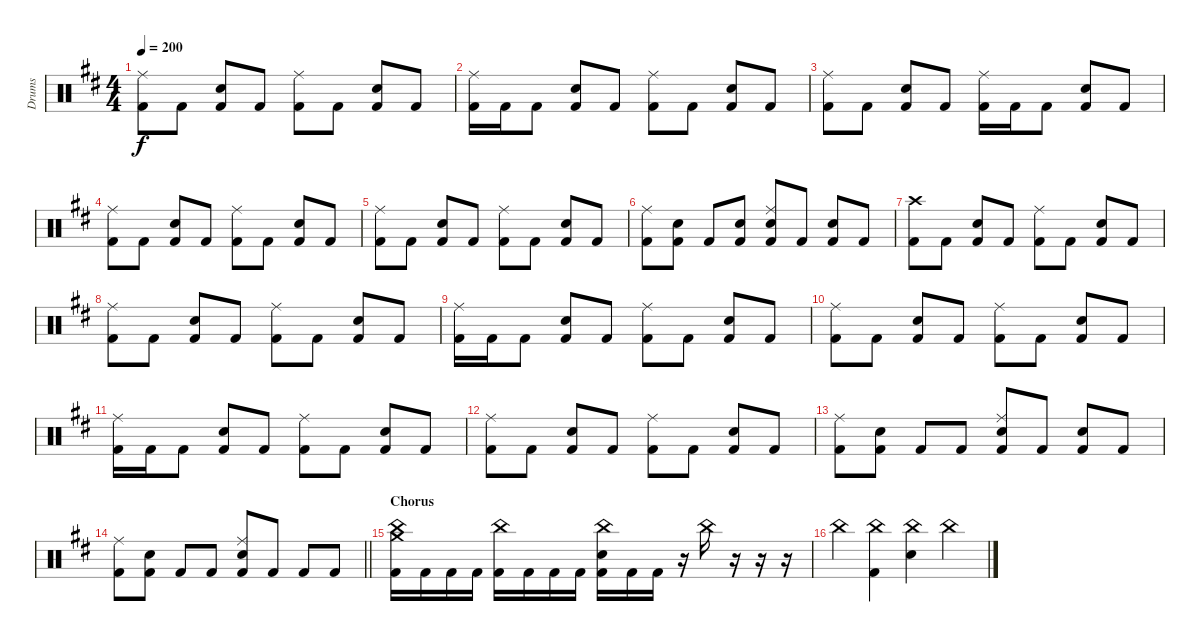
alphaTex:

\track ("Drums" "Drums") {instrument percussion}
\staff {score}
\articulation defaults
\ts (4 4)
\tempo 200
\clef neutral
\ks bminor
("Kick (hit) 2" "Ride (middle)").8{dy f} "Kick (hit) 2".8 ("Kick (hit) 2" "Electric Snare (hit)").8 "Kick (hit) 2".8 ("Kick (hit) 2" "Ride (middle)").8 "Kick (hit) 2".8 ("Kick (hit) 2" "Electric Snare (hit)").8 "Kick (hit) 2".8 |
("Kick (hit) 2" "Ride (middle)").16 "Kick (hit) 2".16 "Kick (hit) 2".8 ("Kick (hit) 2" "Electric Snare (hit)").8 "Kick (hit) 2".8 ("Kick (hit) 2" "Ride (middle)").8 "Kick (hit) 2".8 ("Kick (hit) 2" "Electric Snare (hit)").8 "Kick (hit) 2".8 |
("Kick (hit) 2" "Ride (middle)").8 "Kick (hit) 2".8 ("Kick (hit) 2" "Electric Snare (hit)").8 "Kick (hit) 2".8 ("Kick (hit) 2" "Ride (middle)").16 "Kick (hit) 2".16 "Kick (hit) 2".8 ("Kick (hit) 2" "Electric Snare (hit)").8 "Kick (hit) 2".8 |
("Kick (hit) 2" "Ride (middle)").8 "Kick (hit) 2".8 ("Kick (hit) 2" "Electric Snare (hit)").8 "Kick (hit) 2".8 ("Kick (hit) 2" "Ride (middle)").8 "Kick (hit) 2".8 ("Kick (hit) 2" "Electric Snare (hit)").8 "Kick (hit) 2".8 |
("Kick (hit) 2" "Ride (middle)").8 "Kick (hit) 2".8 ("Kick (hit) 2" "Electric Snare (hit)").8 "Kick (hit) 2".8 ("Kick (hit) 2" "Ride (middle)").8 "Kick (hit) 2".8 ("Kick (hit) 2" "Electric Snare (hit)").8 "Kick (hit) 2".8 |
("Kick (hit) 2" "Ride (middle)").8 ("Kick (hit) 2" "Electric Snare (hit)").8 "Kick (hit) 2".8 ("Kick (hit) 2" "Electric Snare (hit)").8 ("Kick (hit) 2" "Ride (middle)" "Electric Snare (hit)").8 "Kick (hit) 2".8 ("Kick (hit) 2" "Electric Snare (hit)").8 "Kick (hit) 2".8 |
("Kick (hit) 2" "Crash high (hit)").8 "Kick (hit) 2".8 ("Kick (hit) 2" "Electric Snare (hit)").8 "Kick (hit) 2".8 ("Kick (hit) 2" "Ride (middle)").8 "Kick (hit) 2".8 ("Kick (hit) 2" "Electric Snare (hit)").8 "Kick (hit) 2".8 |
("Kick (hit) 2" "Ride (middle)").8 "Kick (hit) 2".8 ("Kick (hit) 2" "Electric Snare (hit)").8 "Kick (hit) 2".8 ("Kick (hit) 2" "Ride (middle)").8 "Kick (hit) 2".8 ("Kick (hit) 2" "Electric Snare (hit)").8 "Kick (hit) 2".8 |
("Kick (hit) 2" "Ride (middle)").16 "Kick (hit) 2".16 "Kick (hit) 2".8 ("Kick (hit) 2" "Electric Snare (hit)").8 "Kick (hit) 2".8 ("Kick (hit) 2" "Ride (middle)").8 "Kick (hit) 2".8 ("Kick (hit) 2" "Electric Snare (hit)").8 "Kick (hit) 2".8 |
("Kick (hit) 2" "Ride (middle)").8 "Kick (hit) 2".8 ("Kick (hit) 2" "Electric Snare (hit)").8 "Kick (hit) 2".8 ("Kick (hit) 2" "Ride (middle)").8 "Kick (hit) 2".8 ("Kick (hit) 2" "Electric Snare (hit)").8 "Kick (hit) 2".8 |
("Kick (hit) 2" "Ride (middle)").16 "Kick (hit) 2".16 "Kick (hit) 2".8 ("Kick (hit) 2" "Electric Snare (hit)").8 "Kick (hit) 2".8 ("Kick (hit) 2" "Ride (middle)").8 "Kick (hit) 2".8 ("Kick (hit) 2" "Electric Snare (hit)").8 "Kick (hit) 2".8 |
("Kick (hit) 2" "Ride (middle)").8 "Kick (hit) 2".8 ("Kick (hit) 2" "Electric Snare (hit)").8 "Kick (hit) 2".8 ("Kick (hit) 2" "Ride (middle)").8 "Kick (hit) 2".8 ("Kick (hit) 2" "Electric Snare (hit)").8 "Kick (hit) 2".8 |
("Kick (hit) 2" "Ride (middle)").8 ("Kick (hit) 2" "Electric Snare (hit)").8 "Kick (hit) 2".8 "Kick (hit) 2".8 ("Kick (hit) 2" "Ride (middle)" "Electric Snare (hit)").8 "Kick (hit) 2".8 ("Kick (hit) 2" "Electric Snare (hit)").8 "Kick (hit) 2".8 |
\barLineRight lightlight
("Kick (hit) 2" "Ride (middle)").8 ("Kick (hit) 2" "Electric Snare (hit)").8 "Kick (hit) 2".8 "Kick (hit) 2".8 ("Kick (hit) 2" "Ride (middle)" "Electric Snare (hit)").8 "Kick (hit) 2".8 "Kick (hit) 2".8 "Kick (hit) 2".8 |
\section ("" "Chorus")
("Kick (hit) 2" "Crash medium (hit)" "China (hit)").16 "Kick (hit) 2".16 "Kick (hit) 2".16 "Kick (hit) 2".16 ("Kick (hit) 2" "China (hit)").16 "Kick (hit) 2".16 "Kick (hit) 2".16 "Kick (hit) 2".16 ("Kick (hit) 2" "Electric Snare (hit)" "China (hit)").16 "Kick (hit) 2".16 "Kick (hit) 2".16 r.16 "China (hit)".16 r.16 r.16 r.16 |
"China (hit)".4 ("Kick (hit) 2" "China (hit)").4 ("Electric Snare (hit)" "China (hit)").4 "China (hit)".4
